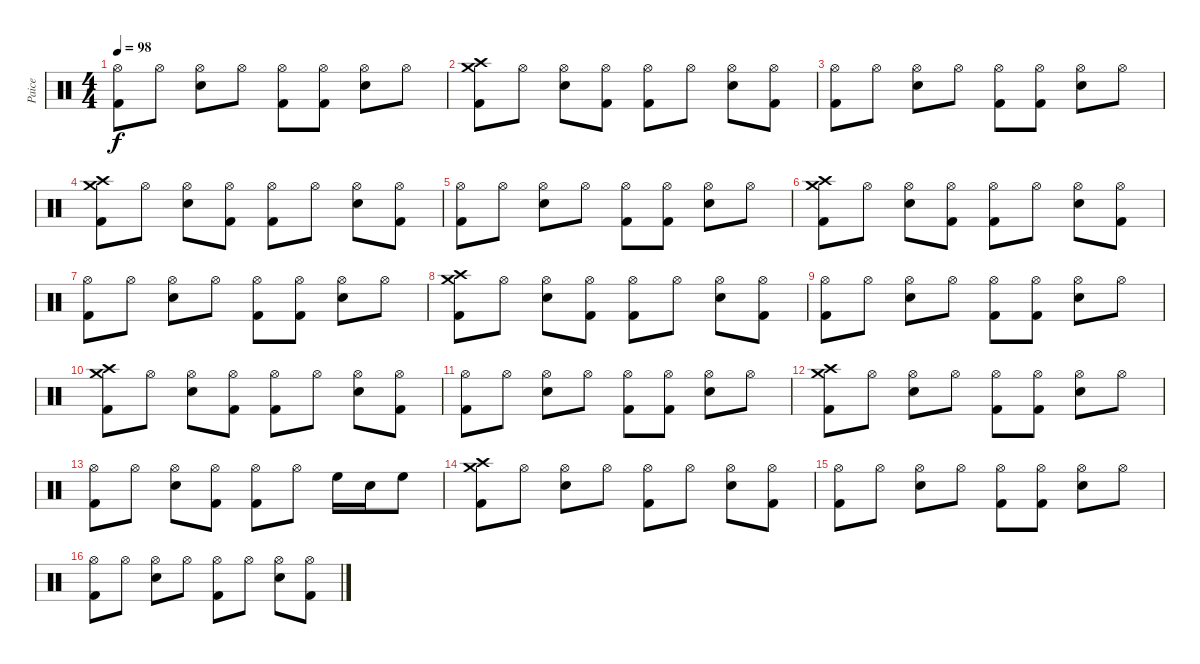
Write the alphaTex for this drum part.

\track ("Paice" "Paice") {instrument percussion}
\staff {score}
\articulation defaults
\ts (4 4)
\tempo 98
\clef neutral
\ks c
("Hi-Hat (open)" "Kick (hit) 2").8{dy f} "Hi-Hat (open)".8 ("Hi-Hat (open)" "Electric Snare (hit)").8 "Hi-Hat (open)".8 ("Hi-Hat (open)" "Kick (hit) 2").8 ("Hi-Hat (open)" "Kick (hit) 2").8 ("Hi-Hat (open)" "Electric Snare (hit)").8 "Hi-Hat (open)".8 |
("Crash high (hit)" "Crash medium (hit)" "Kick (hit) 2").8 "Hi-Hat (open)".8 ("Hi-Hat (open)" "Electric Snare (hit)").8 ("Hi-Hat (open)" "Kick (hit) 2").8 ("Hi-Hat (open)" "Kick (hit) 2").8 "Hi-Hat (open)".8 ("Hi-Hat (open)" "Electric Snare (hit)").8 ("Hi-Hat (open)" "Kick (hit) 2").8 |
("Hi-Hat (open)" "Kick (hit) 2").8 "Hi-Hat (open)".8 ("Hi-Hat (open)" "Electric Snare (hit)").8 "Hi-Hat (open)".8 ("Hi-Hat (open)" "Kick (hit) 2").8 ("Hi-Hat (open)" "Kick (hit) 2").8 ("Hi-Hat (open)" "Electric Snare (hit)").8 "Hi-Hat (open)".8 |
("Crash high (hit)" "Crash medium (hit)" "Kick (hit) 2").8 "Hi-Hat (open)".8 ("Hi-Hat (open)" "Electric Snare (hit)").8 ("Hi-Hat (open)" "Kick (hit) 2").8 ("Hi-Hat (open)" "Kick (hit) 2").8 "Hi-Hat (open)".8 ("Hi-Hat (open)" "Electric Snare (hit)").8 ("Hi-Hat (open)" "Kick (hit) 2").8 |
("Hi-Hat (open)" "Kick (hit) 2").8 "Hi-Hat (open)".8 ("Hi-Hat (open)" "Electric Snare (hit)").8 "Hi-Hat (open)".8 ("Hi-Hat (open)" "Kick (hit) 2").8 ("Hi-Hat (open)" "Kick (hit) 2").8 ("Hi-Hat (open)" "Electric Snare (hit)").8 "Hi-Hat (open)".8 |
("Crash high (hit)" "Crash medium (hit)" "Kick (hit) 2").8 "Hi-Hat (open)".8 ("Hi-Hat (open)" "Electric Snare (hit)").8 ("Hi-Hat (open)" "Kick (hit) 2").8 ("Hi-Hat (open)" "Kick (hit) 2").8 "Hi-Hat (open)".8 ("Hi-Hat (open)" "Electric Snare (hit)").8 ("Hi-Hat (open)" "Kick (hit) 2").8 |
("Hi-Hat (open)" "Kick (hit) 2").8 "Hi-Hat (open)".8 ("Hi-Hat (open)" "Electric Snare (hit)").8 "Hi-Hat (open)".8 ("Hi-Hat (open)" "Kick (hit) 2").8 ("Hi-Hat (open)" "Kick (hit) 2").8 ("Hi-Hat (open)" "Electric Snare (hit)").8 "Hi-Hat (open)".8 |
("Crash high (hit)" "Crash medium (hit)" "Kick (hit) 2").8 "Hi-Hat (open)".8 ("Hi-Hat (open)" "Electric Snare (hit)").8 ("Hi-Hat (open)" "Kick (hit) 2").8 ("Hi-Hat (open)" "Kick (hit) 2").8 "Hi-Hat (open)".8 ("Hi-Hat (open)" "Electric Snare (hit)").8 ("Hi-Hat (open)" "Kick (hit) 2").8 |
("Hi-Hat (open)" "Kick (hit) 2").8 "Hi-Hat (open)".8 ("Hi-Hat (open)" "Electric Snare (hit)").8 "Hi-Hat (open)".8 ("Hi-Hat (open)" "Kick (hit) 2").8 ("Hi-Hat (open)" "Kick (hit) 2").8 ("Hi-Hat (open)" "Electric Snare (hit)").8 "Hi-Hat (open)".8 |
("Crash high (hit)" "Crash medium (hit)" "Kick (hit) 2").8 "Hi-Hat (open)".8 ("Hi-Hat (open)" "Electric Snare (hit)").8 ("Hi-Hat (open)" "Kick (hit) 2").8 ("Hi-Hat (open)" "Kick (hit) 2").8 "Hi-Hat (open)".8 ("Hi-Hat (open)" "Electric Snare (hit)").8 ("Hi-Hat (open)" "Kick (hit) 2").8 |
("Hi-Hat (open)" "Kick (hit) 2").8 "Hi-Hat (open)".8 ("Hi-Hat (open)" "Electric Snare (hit)").8 "Hi-Hat (open)".8 ("Hi-Hat (open)" "Kick (hit) 2").8 ("Hi-Hat (open)" "Kick (hit) 2").8 ("Hi-Hat (open)" "Electric Snare (hit)").8 "Hi-Hat (open)".8 |
("Crash high (hit)" "Crash medium (hit)" "Kick (hit) 2").8 "Hi-Hat (open)".8 ("Hi-Hat (open)" "Electric Snare (hit)").8 "Hi-Hat (open)".8 ("Hi-Hat (open)" "Kick (hit) 2").8 ("Hi-Hat (open)" "Kick (hit) 2").8 ("Hi-Hat (open)" "Electric Snare (hit)").8 "Hi-Hat (open)".8 |
("Hi-Hat (open)" "Kick (hit) 2").8 "Hi-Hat (open)".8 ("Hi-Hat (open)" "Electric Snare (hit)").8 ("Hi-Hat (open)" "Kick (hit) 2").8 ("Hi-Hat (open)" "Kick (hit) 2").8 "Hi-Hat (open)".8 "High Floor Tom (hit)".16 "Electric Snare (hit)".16 "High Floor Tom (hit)".8 |
("Crash high (hit)" "Crash medium (hit)" "Kick (hit) 2").8 "Hi-Hat (open)".8 ("Hi-Hat (open)" "Electric Snare (hit)").8 "Hi-Hat (open)".8 ("Hi-Hat (open)" "Kick (hit) 2").8 "Hi-Hat (open)".8 ("Hi-Hat (open)" "Electric Snare (hit)").8 ("Hi-Hat (open)" "Kick (hit) 2").8 |
("Hi-Hat (open)" "Kick (hit) 2").8 "Hi-Hat (open)".8 ("Hi-Hat (open)" "Electric Snare (hit)").8 "Hi-Hat (open)".8 ("Hi-Hat (open)" "Kick (hit) 2").8 ("Hi-Hat (open)" "Kick (hit) 2").8 ("Hi-Hat (open)" "Electric Snare (hit)").8 "Hi-Hat (open)".8 |
("Hi-Hat (open)" "Kick (hit) 2").8 "Hi-Hat (open)".8 ("Hi-Hat (open)" "Electric Snare (hit)").8 "Hi-Hat (open)".8 ("Hi-Hat (open)" "Kick (hit) 2").8 "Hi-Hat (open)".8 ("Hi-Hat (open)" "Electric Snare (hit)").8 ("Hi-Hat (open)" "Kick (hit) 2").8
